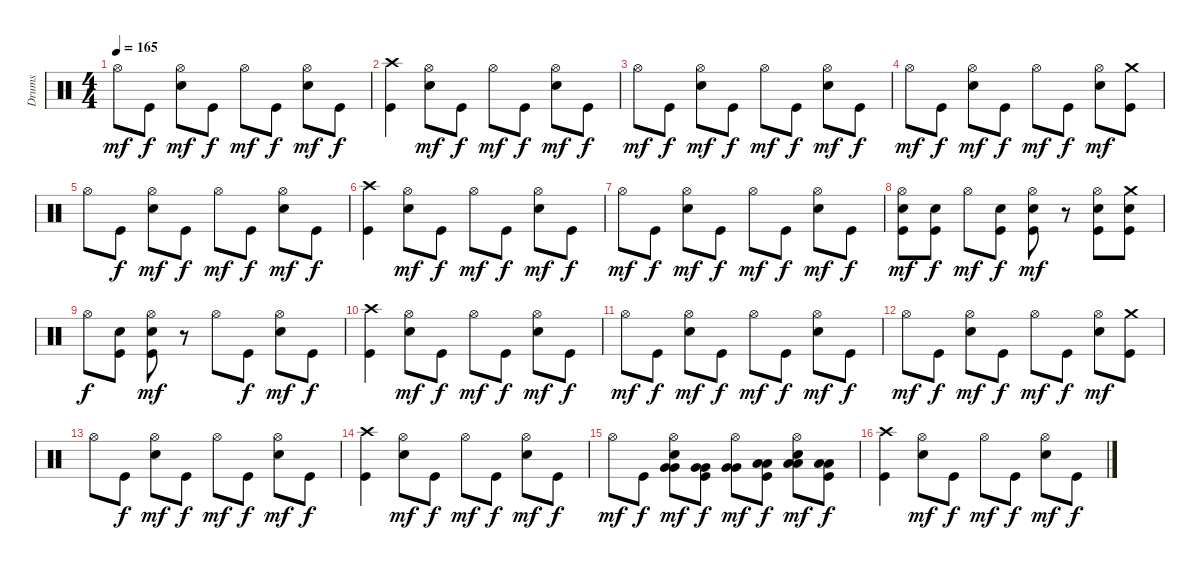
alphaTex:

\track ("Drums" "Drums") {instrument percussion}
\staff {score}
\articulation defaults
\ts (4 4)
\tempo 165
\clef neutral
\ks c "Hi-Hat (open)".8{dy mf} "Kick (hit)".8{dy f}
("Electric Snare (hit)" "Hi-Hat (open)").8{dy mf} "Kick (hit)".8{dy f} "Hi-Hat (open)".8{dy mf} "Kick (hit)".8{dy f} ("Electric Snare (hit)" "Hi-Hat (open)").8{dy mf} "Kick (hit)".8{dy f} |
("Kick (hit)" "Crash high (hit)").4 ("Electric Snare (hit)" "Hi-Hat (open)").8{dy mf} "Kick (hit)".8{dy f} "Hi-Hat (open)".8{dy mf} "Kick (hit)".8{dy f} ("Electric Snare (hit)" "Hi-Hat (open)").8{dy mf} "Kick (hit)".8{dy f} |
"Hi-Hat (open)".8{dy mf} "Kick (hit)".8{dy f} ("Electric Snare (hit)" "Hi-Hat (open)").8{dy mf} "Kick (hit)".8{dy f} "Hi-Hat (open)".8{dy mf} "Kick (hit)".8{dy f} ("Electric Snare (hit)" "Hi-Hat (open)").8{dy mf} "Kick (hit)".8{dy f} |
"Hi-Hat (open)".8{dy mf} "Kick (hit)".8{dy f} ("Electric Snare (hit)" "Hi-Hat (open)").8{dy mf} "Kick (hit)".8{dy f} "Hi-Hat (open)".8{dy mf} "Kick (hit)".8{dy f} ("Electric Snare (hit)" "Hi-Hat (open)").8{dy mf} ("Kick (hit)" "Crash medium (hit)").8 |
"Hi-Hat (open)".8 "Kick (hit)".8{dy f} ("Electric Snare (hit)" "Hi-Hat (open)").8{dy mf} "Kick (hit)".8{dy f} "Hi-Hat (open)".8{dy mf} "Kick (hit)".8{dy f} ("Electric Snare (hit)" "Hi-Hat (open)").8{dy mf} "Kick (hit)".8{dy f} |
("Kick (hit)" "Crash high (hit)").4 ("Electric Snare (hit)" "Hi-Hat (open)").8{dy mf} "Kick (hit)".8{dy f} "Hi-Hat (open)".8{dy mf} "Kick (hit)".8{dy f} ("Electric Snare (hit)" "Hi-Hat (open)").8{dy mf} "Kick (hit)".8{dy f} |
"Hi-Hat (open)".8{dy mf} "Kick (hit)".8{dy f} ("Electric Snare (hit)" "Hi-Hat (open)").8{dy mf} "Kick (hit)".8{dy f} "Hi-Hat (open)".8{dy mf} "Kick (hit)".8{dy f} ("Electric Snare (hit)" "Hi-Hat (open)").8{dy mf} "Kick (hit)".8{dy f} |
("Electric Snare (hit)" "Kick (hit)" "Hi-Hat (open)").8{dy mf} ("Electric Snare (hit)" "Kick (hit)").8{dy f} "Hi-Hat (open)".8{dy mf} ("Electric Snare (hit)" "Kick (hit)").8{dy f} ("Electric Snare (hit)" "Kick (hit)" "Hi-Hat (open)").8{dy mf} r.8 ("Electric Snare (hit)" "Kick (hit)" "Hi-Hat (open)").8 ("Electric Snare (hit)" "Kick (hit)" "Crash medium (hit)").8 |
"Hi-Hat (open)".8{dy f} ("Electric Snare (hit)" "Kick (hit)").8 ("Electric Snare (hit)" "Kick (hit)" "Hi-Hat (open)").8{dy mf} r.8 "Hi-Hat (open)".8 "Kick (hit)".8{dy f} ("Electric Snare (hit)" "Hi-Hat (open)").8{dy mf} "Kick (hit)".8{dy f} |
("Kick (hit)" "Crash high (hit)").4 ("Electric Snare (hit)" "Hi-Hat (open)").8{dy mf} "Kick (hit)".8{dy f} "Hi-Hat (open)".8{dy mf} "Kick (hit)".8{dy f} ("Electric Snare (hit)" "Hi-Hat (open)").8{dy mf} "Kick (hit)".8{dy f} |
"Hi-Hat (open)".8{dy mf} "Kick (hit)".8{dy f} ("Electric Snare (hit)" "Hi-Hat (open)").8{dy mf} "Kick (hit)".8{dy f} "Hi-Hat (open)".8{dy mf} "Kick (hit)".8{dy f} ("Electric Snare (hit)" "Hi-Hat (open)").8{dy mf} "Kick (hit)".8{dy f} |
"Hi-Hat (open)".8{dy mf} "Kick (hit)".8{dy f} ("Electric Snare (hit)" "Hi-Hat (open)").8{dy mf} "Kick (hit)".8{dy f} "Hi-Hat (open)".8{dy mf} "Kick (hit)".8{dy f} ("Electric Snare (hit)" "Hi-Hat (open)").8{dy mf} ("Kick (hit)" "Crash medium (hit)").8 |
"Hi-Hat (open)".8 "Kick (hit)".8{dy f} ("Electric Snare (hit)" "Hi-Hat (open)").8{dy mf} "Kick (hit)".8{dy f} "Hi-Hat (open)".8{dy mf} "Kick (hit)".8{dy f} ("Electric Snare (hit)" "Hi-Hat (open)").8{dy mf} "Kick (hit)".8{dy f} |
("Kick (hit)" "Crash high (hit)").4 ("Electric Snare (hit)" "Hi-Hat (open)").8{dy mf} "Kick (hit)".8{dy f} "Hi-Hat (open)".8{dy mf} "Kick (hit)".8{dy f} ("Electric Snare (hit)" "Hi-Hat (open)").8{dy mf} "Kick (hit)".8{dy f} |
"Hi-Hat (open)".8{dy mf} "Kick (hit)".8{dy f} ("Electric Snare (hit)" "Very Low Tom (hit)" "Very Low Tom (hit)" "Hi-Hat (open)").8{dy mf} ("Kick (hit)" "Very Low Tom (hit)" "Very Low Tom (hit)").8{dy f} ("Very Low Tom (hit)" "Very Low Tom (hit)" "Hi-Hat (open)").8{dy mf} ("Kick (hit)" "Low Floor Tom (hit)" "Low Floor Tom (hit)").8{dy f} ("Electric Snare (hit)" "Low Floor Tom (hit)" "Low Floor Tom (hit)" "Hi-Hat (open)").8{dy mf} ("Kick (hit)" "Low Floor Tom (hit)" "Low Floor Tom (hit)").8{dy f} |
("Kick (hit)" "Crash high (hit)").4 ("Electric Snare (hit)" "Hi-Hat (open)").8{dy mf} "Kick (hit)".8{dy f} "Hi-Hat (open)".8{dy mf} "Kick (hit)".8{dy f} ("Electric Snare (hit)" "Hi-Hat (open)").8{dy mf} "Kick (hit)".8{dy f}
